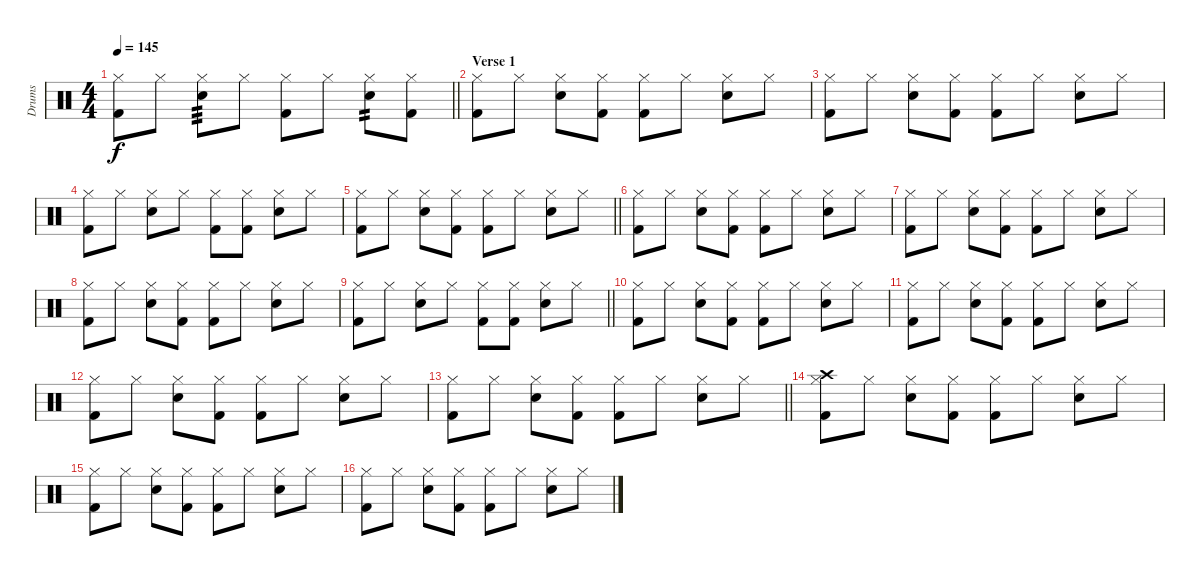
\track ("Drums" "Drums") {instrument percussion}
\staff {score}
\articulation defaults
\ts (4 4)
\tempo 145
\clef neutral
\barLineRight lightlight
\ks c
("Kick (hit) 2" "Hi-Hat (closed)").8{dy f} "Hi-Hat (closed)".8 ("Snare (hit) 2" "Hi-Hat (closed)").8{tp 3} "Hi-Hat (closed)".8 ("Kick (hit) 2" "Hi-Hat (closed)").8 "Hi-Hat (closed)".8 ("Snare (hit) 2" "Hi-Hat (closed)").8{tp 2} ("Kick (hit) 2" "Hi-Hat (closed)").8 |
\section ("" "Verse 1")
("Kick (hit) 2" "Hi-Hat (closed)").8 "Hi-Hat (closed)".8 ("Snare (hit) 2" "Hi-Hat (closed)").8 ("Kick (hit) 2" "Hi-Hat (closed)").8 ("Kick (hit) 2" "Hi-Hat (closed)").8 "Hi-Hat (closed)".8 ("Snare (hit) 2" "Hi-Hat (closed)").8 "Hi-Hat (closed)".8 |
("Kick (hit) 2" "Hi-Hat (closed)").8 "Hi-Hat (closed)".8 ("Snare (hit) 2" "Hi-Hat (closed)").8 ("Kick (hit) 2" "Hi-Hat (closed)").8 ("Kick (hit) 2" "Hi-Hat (closed)").8 "Hi-Hat (closed)".8 ("Snare (hit) 2" "Hi-Hat (closed)").8 "Hi-Hat (closed)".8 |
("Kick (hit) 2" "Hi-Hat (closed)").8 "Hi-Hat (closed)".8 ("Snare (hit) 2" "Hi-Hat (closed)").8 "Hi-Hat (closed)".8 ("Kick (hit) 2" "Hi-Hat (closed)").8 ("Kick (hit) 2" "Hi-Hat (closed)").8 ("Snare (hit) 2" "Hi-Hat (closed)").8 "Hi-Hat (closed)".8 |
\barLineRight lightlight
("Kick (hit) 2" "Hi-Hat (closed)").8 "Hi-Hat (closed)".8 ("Snare (hit) 2" "Hi-Hat (closed)").8 ("Kick (hit) 2" "Hi-Hat (closed)").8 ("Kick (hit) 2" "Hi-Hat (closed)").8 "Hi-Hat (closed)".8 ("Snare (hit) 2" "Hi-Hat (closed)").8 "Hi-Hat (closed)".8 |
("Kick (hit) 2" "Hi-Hat (closed)").8 "Hi-Hat (closed)".8 ("Snare (hit) 2" "Hi-Hat (closed)").8 ("Kick (hit) 2" "Hi-Hat (closed)").8 ("Kick (hit) 2" "Hi-Hat (closed)").8 "Hi-Hat (closed)".8 ("Snare (hit) 2" "Hi-Hat (closed)").8 "Hi-Hat (closed)".8 |
("Kick (hit) 2" "Hi-Hat (closed)").8 "Hi-Hat (closed)".8 ("Snare (hit) 2" "Hi-Hat (closed)").8 ("Kick (hit) 2" "Hi-Hat (closed)").8 ("Kick (hit) 2" "Hi-Hat (closed)").8 "Hi-Hat (closed)".8 ("Snare (hit) 2" "Hi-Hat (closed)").8 "Hi-Hat (closed)".8 |
("Kick (hit) 2" "Hi-Hat (closed)").8 "Hi-Hat (closed)".8 ("Snare (hit) 2" "Hi-Hat (closed)").8 ("Kick (hit) 2" "Hi-Hat (closed)").8 ("Kick (hit) 2" "Hi-Hat (closed)").8 "Hi-Hat (closed)".8 ("Snare (hit) 2" "Hi-Hat (closed)").8 "Hi-Hat (closed)".8 |
\barLineRight lightlight
("Kick (hit) 2" "Hi-Hat (closed)").8 "Hi-Hat (closed)".8 ("Snare (hit) 2" "Hi-Hat (closed)").8 "Hi-Hat (closed)".8 ("Kick (hit) 2" "Hi-Hat (closed)").8 ("Kick (hit) 2" "Hi-Hat (closed)").8 ("Snare (hit) 2" "Hi-Hat (closed)").8 "Hi-Hat (closed)".8 |
("Kick (hit) 2" "Hi-Hat (closed)").8 "Hi-Hat (closed)".8 ("Snare (hit) 2" "Hi-Hat (closed)").8 ("Kick (hit) 2" "Hi-Hat (closed)").8 ("Kick (hit) 2" "Hi-Hat (closed)").8 "Hi-Hat (closed)".8 ("Snare (hit) 2" "Hi-Hat (closed)").8 "Hi-Hat (closed)".8 |
("Kick (hit) 2" "Hi-Hat (closed)").8 "Hi-Hat (closed)".8 ("Snare (hit) 2" "Hi-Hat (closed)").8 ("Kick (hit) 2" "Hi-Hat (closed)").8 ("Kick (hit) 2" "Hi-Hat (closed)").8 "Hi-Hat (closed)".8 ("Snare (hit) 2" "Hi-Hat (closed)").8 "Hi-Hat (closed)".8 |
("Kick (hit) 2" "Hi-Hat (closed)").8 "Hi-Hat (closed)".8 ("Snare (hit) 2" "Hi-Hat (closed)").8 ("Kick (hit) 2" "Hi-Hat (closed)").8 ("Kick (hit) 2" "Hi-Hat (closed)").8 "Hi-Hat (closed)".8 ("Snare (hit) 2" "Hi-Hat (closed)").8 "Hi-Hat (closed)".8 |
\barLineRight lightlight
("Kick (hit) 2" "Hi-Hat (closed)").8 "Hi-Hat (closed)".8 ("Snare (hit) 2" "Hi-Hat (closed)").8 ("Kick (hit) 2" "Hi-Hat (closed)").8 ("Kick (hit) 2" "Hi-Hat (closed)").8 "Hi-Hat (closed)".8 ("Snare (hit) 2" "Hi-Hat (closed)").8 "Hi-Hat (closed)".8 |
("Kick (hit) 2" "Hi-Hat (closed)" "Crash high (hit)").8 "Hi-Hat (closed)".8 ("Snare (hit) 2" "Hi-Hat (closed)").8 ("Kick (hit) 2" "Hi-Hat (closed)").8 ("Kick (hit) 2" "Hi-Hat (closed)").8 "Hi-Hat (closed)".8 ("Snare (hit) 2" "Hi-Hat (closed)").8 "Hi-Hat (closed)".8 |
("Kick (hit) 2" "Hi-Hat (closed)").8 "Hi-Hat (closed)".8 ("Snare (hit) 2" "Hi-Hat (closed)").8 ("Kick (hit) 2" "Hi-Hat (closed)").8 ("Kick (hit) 2" "Hi-Hat (closed)").8 "Hi-Hat (closed)".8 ("Snare (hit) 2" "Hi-Hat (closed)").8 "Hi-Hat (closed)".8 |
("Kick (hit) 2" "Hi-Hat (closed)").8 "Hi-Hat (closed)".8 ("Snare (hit) 2" "Hi-Hat (closed)").8 ("Kick (hit) 2" "Hi-Hat (closed)").8 ("Kick (hit) 2" "Hi-Hat (closed)").8 "Hi-Hat (closed)".8 ("Snare (hit) 2" "Hi-Hat (closed)").8 "Hi-Hat (closed)".8
